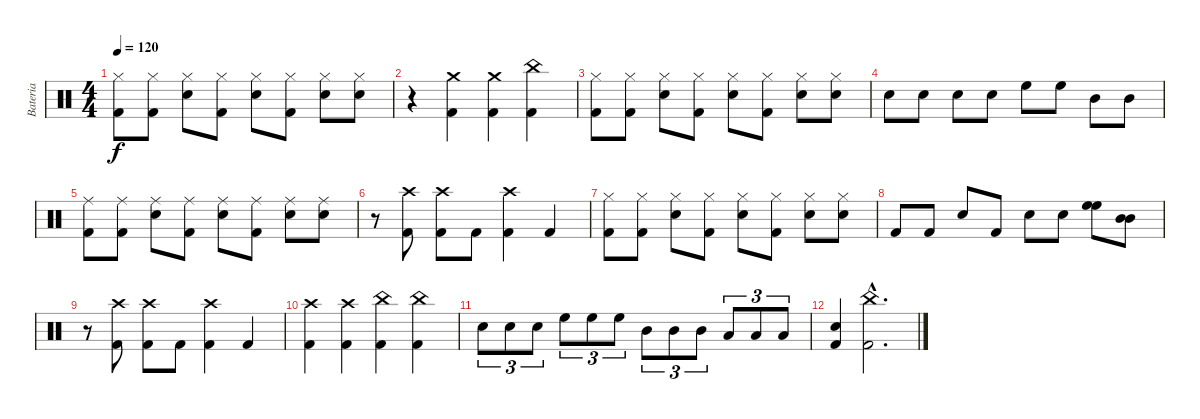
\track ("Bateria" "Bateria") {instrument percussion}
\staff {score}
\articulation defaults
\ts (4 4)
\tempo 120
\clef neutral
\ks c
("Hi-Hat (closed)" "Kick (hit) 2").8{dy f} ("Hi-Hat (closed)" "Kick (hit) 2").8 ("Hi-Hat (closed)" "Snare (hit) 2").8 ("Hi-Hat (closed)" "Kick (hit) 2").8 ("Hi-Hat (closed)" "Snare (hit) 2").8 ("Hi-Hat (closed)" "Kick (hit) 2").8 ("Hi-Hat (closed)" "Snare (hit) 2").8 ("Hi-Hat (closed)" "Snare (hit) 2").8 |
r.4 ("Crash medium (hit)" "Kick (hit) 2").4 ("Crash medium (hit)" "Kick (hit) 2").4 ("China (hit)" "Kick (hit) 2").4 |
("Hi-Hat (closed)" "Kick (hit) 2").8 ("Hi-Hat (closed)" "Kick (hit) 2").8 ("Hi-Hat (closed)" "Snare (hit) 2").8 ("Hi-Hat (closed)" "Kick (hit) 2").8 ("Hi-Hat (closed)" "Snare (hit) 2").8 ("Hi-Hat (closed)" "Kick (hit) 2").8 ("Hi-Hat (closed)" "Snare (hit) 2").8 ("Hi-Hat (closed)" "Snare (hit) 2").8 |
"Snare (hit) 2".8 "Snare (hit) 2".8 "Snare (hit) 2".8 "Snare (hit) 2".8 "High Floor Tom (hit)".8 "High Floor Tom (hit)".8 "Mid Tom (hit)".8 "Mid Tom (hit)".8 |
("Ride (middle)" "Kick (hit) 2").8 ("Ride (middle)" "Kick (hit) 2").8 ("Ride (middle)" "Snare (hit) 2").8 ("Ride (middle)" "Kick (hit) 2").8 ("Ride (middle)" "Snare (hit) 2").8 ("Ride (middle)" "Kick (hit) 2").8 ("Ride (middle)" "Snare (hit) 2").8 ("Ride (middle)" "Snare (hit) 2").8 |
r.8 ("Crash high (hit)" "Kick (hit) 2").8 ("Crash high (hit)" "Kick (hit) 2").8 "Kick (hit) 2".8 ("Crash high (hit)" "Kick (hit) 2").4 "Kick (hit) 2".4 |
("Hi-Hat (closed)" "Kick (hit) 2").8 ("Hi-Hat (closed)" "Kick (hit) 2").8 ("Hi-Hat (closed)" "Snare (hit) 2").8 ("Hi-Hat (closed)" "Kick (hit) 2").8 ("Hi-Hat (closed)" "Snare (hit) 2").8 ("Hi-Hat (closed)" "Kick (hit) 2").8 ("Hi-Hat (closed)" "Snare (hit) 2").8 ("Hi-Hat (closed)" "Snare (hit) 2").8 |
"Kick (hit) 2".8 "Kick (hit) 2".8 "Snare (hit) 2".8 "Kick (hit) 2".8 "Snare (hit) 2".8 "Snare (hit) 2".8 ("High Floor Tom (hit)" "High Floor Tom (hit)").8 ("Mid Tom (hit)" "Mid Tom (hit)").8 |
r.8 ("Crash high (hit)" "Kick (hit) 2").8 ("Crash high (hit)" "Kick (hit) 2").8 "Kick (hit) 2".8 ("Crash high (hit)" "Kick (hit) 2").4 "Kick (hit) 2".4 |
("Crash high (hit)" "Kick (hit) 2").4 ("Crash high (hit)" "Kick (hit) 2").4 ("China (hit)" "Kick (hit) 2").4 ("China (hit)" "Kick (hit) 2").4 |
"Snare (hit) 2".8{tu (3 2)} "Snare (hit) 2".8{tu (3 2)} "Snare (hit) 2".8{tu (3 2)} "High Floor Tom (hit)".8{tu (3 2)} "High Floor Tom (hit)".8{tu (3 2)} "High Floor Tom (hit)".8{tu (3 2)} "Mid Tom (hit)".8{tu (3 2)} "Mid Tom (hit)".8{tu (3 2)} "Mid Tom (hit)".8{tu (3 2)} "Low Floor Tom (hit)".8{tu (3 2)} "Low Floor Tom (hit)".8{tu (3 2)} "Low Floor Tom (hit)".8{tu (3 2)} |
("Snare (hit) 2" "Kick (hit) 2").4 ("China (hit)"{hac} "Kick (hit) 2"{hac}).2{d}
